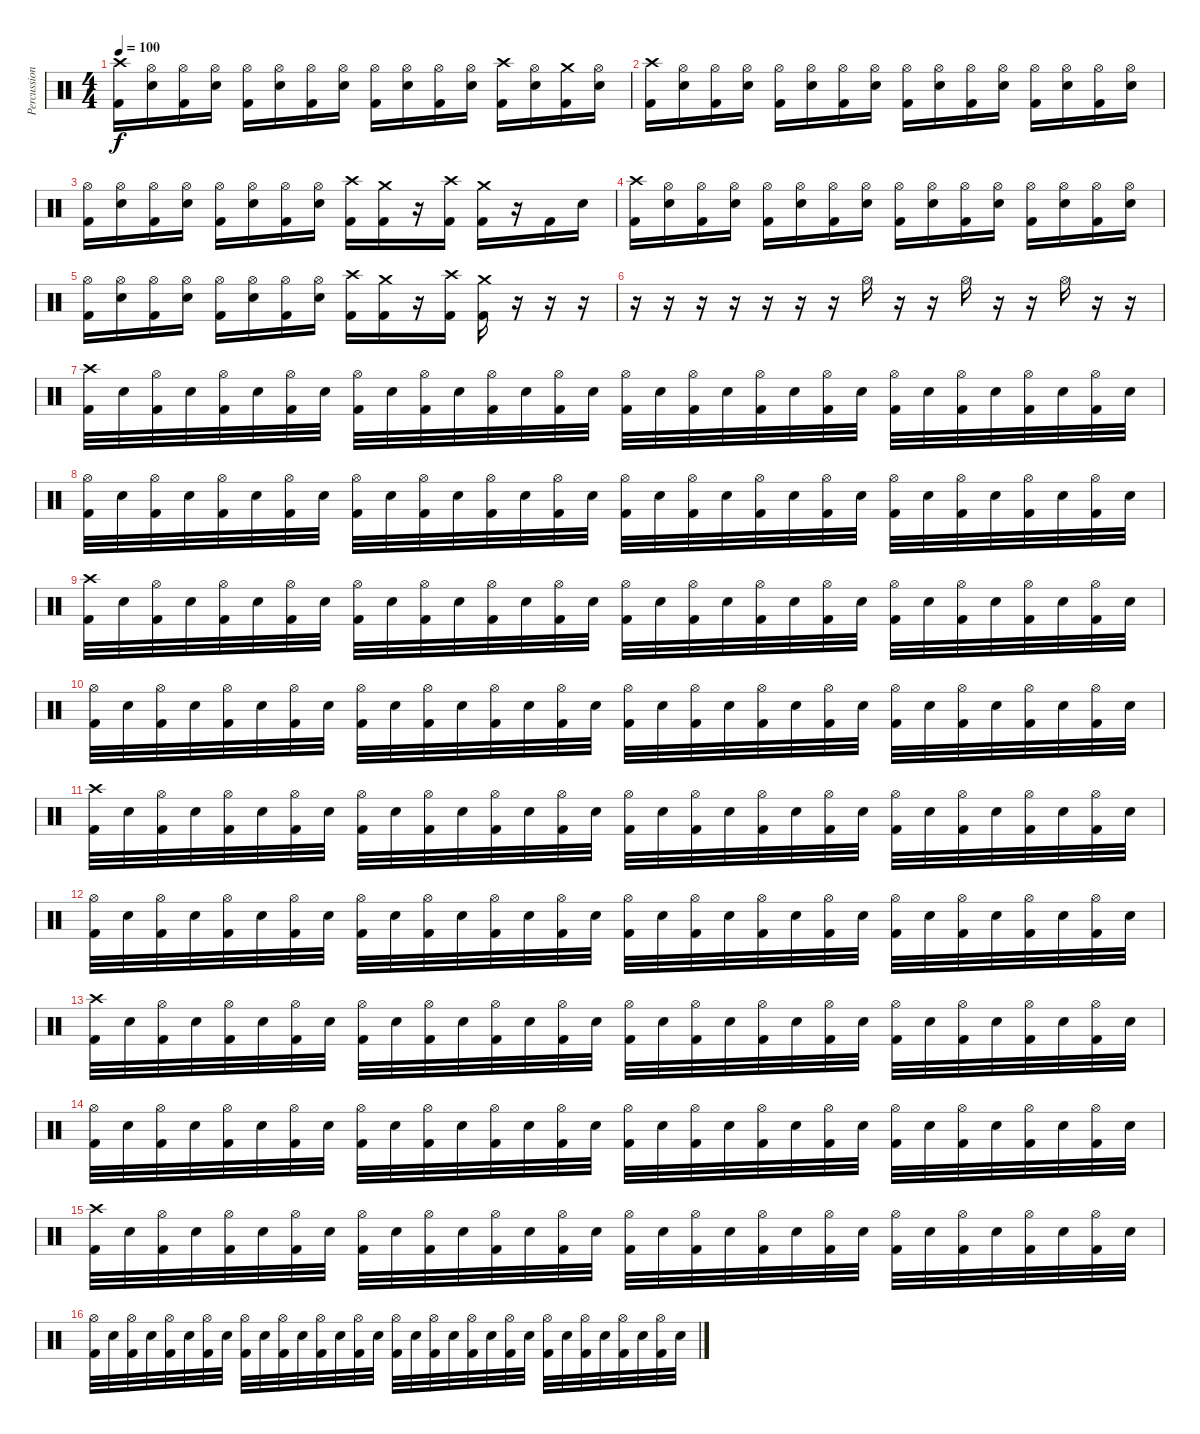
\track ("Percussion" "Percussion") {instrument percussion}
\staff {score}
\articulation defaults
\ts (4 4)
\tempo 100
\clef neutral
\ks c
("Crash high (hit)" "Kick (hit) 2").16{dy f} ("Hi-Hat (open)" "Snare (hit) 2").16 ("Hi-Hat (open)" "Kick (hit) 2").16 ("Hi-Hat (open)" "Snare (hit) 2").16 ("Hi-Hat (open)" "Kick (hit) 2").16 ("Hi-Hat (open)" "Snare (hit) 2").16 ("Hi-Hat (open)" "Kick (hit) 2").16 ("Hi-Hat (open)" "Snare (hit) 2").16 ("Hi-Hat (open)" "Kick (hit) 2").16 ("Hi-Hat (open)" "Snare (hit) 2").16 ("Hi-Hat (open)" "Kick (hit) 2").16 ("Hi-Hat (open)" "Snare (hit) 2").16 ("Crash high (hit)" "Kick (hit) 2").16 ("Hi-Hat (open)" "Snare (hit) 2").16 ("Crash medium (hit)" "Kick (hit) 2").16 ("Hi-Hat (open)" "Snare (hit) 2").16 |
("Crash high (hit)" "Kick (hit) 2").16 ("Hi-Hat (open)" "Snare (hit) 2").16 ("Hi-Hat (open)" "Kick (hit) 2").16 ("Hi-Hat (open)" "Snare (hit) 2").16 ("Hi-Hat (open)" "Kick (hit) 2").16 ("Hi-Hat (open)" "Snare (hit) 2").16 ("Hi-Hat (open)" "Kick (hit) 2").16 ("Hi-Hat (open)" "Snare (hit) 2").16 ("Hi-Hat (open)" "Kick (hit) 2").16 ("Hi-Hat (open)" "Snare (hit) 2").16 ("Hi-Hat (open)" "Kick (hit) 2").16 ("Hi-Hat (open)" "Snare (hit) 2").16 ("Hi-Hat (open)" "Kick (hit) 2").16 ("Hi-Hat (open)" "Snare (hit) 2").16 ("Hi-Hat (open)" "Kick (hit) 2").16 ("Hi-Hat (open)" "Snare (hit) 2").16 |
("Hi-Hat (open)" "Kick (hit) 2").16 ("Hi-Hat (open)" "Snare (hit) 2").16 ("Hi-Hat (open)" "Kick (hit) 2").16 ("Hi-Hat (open)" "Snare (hit) 2").16 ("Hi-Hat (open)" "Kick (hit) 2").16 ("Hi-Hat (open)" "Snare (hit) 2").16 ("Hi-Hat (open)" "Kick (hit) 2").16 ("Hi-Hat (open)" "Snare (hit) 2").16 ("Crash high (hit)" "Kick (hit) 2").16 ("Crash medium (hit)" "Kick (hit) 2").16 r.16 ("Crash high (hit)" "Kick (hit) 2").16 ("Crash medium (hit)" "Kick (hit) 2").16 r.16 "Kick (hit) 2".16 "Snare (hit) 2".16 |
("Crash high (hit)" "Kick (hit) 2").16 ("Hi-Hat (open)" "Snare (hit) 2").16 ("Hi-Hat (open)" "Kick (hit) 2").16 ("Hi-Hat (open)" "Snare (hit) 2").16 ("Hi-Hat (open)" "Kick (hit) 2").16 ("Hi-Hat (open)" "Snare (hit) 2").16 ("Hi-Hat (open)" "Kick (hit) 2").16 ("Hi-Hat (open)" "Snare (hit) 2").16 ("Hi-Hat (open)" "Kick (hit) 2").16 ("Hi-Hat (open)" "Snare (hit) 2").16 ("Hi-Hat (open)" "Kick (hit) 2").16 ("Hi-Hat (open)" "Snare (hit) 2").16 ("Hi-Hat (open)" "Kick (hit) 2").16 ("Hi-Hat (open)" "Snare (hit) 2").16 ("Hi-Hat (open)" "Kick (hit) 2").16 ("Hi-Hat (open)" "Snare (hit) 2").16 |
("Hi-Hat (open)" "Kick (hit) 2").16 ("Hi-Hat (open)" "Snare (hit) 2").16 ("Hi-Hat (open)" "Kick (hit) 2").16 ("Hi-Hat (open)" "Snare (hit) 2").16 ("Hi-Hat (open)" "Kick (hit) 2").16 ("Hi-Hat (open)" "Snare (hit) 2").16 ("Hi-Hat (open)" "Kick (hit) 2").16 ("Hi-Hat (open)" "Snare (hit) 2").16 ("Crash high (hit)" "Kick (hit) 2").16 ("Crash medium (hit)" "Kick (hit) 2").16 r.16 ("Crash high (hit)" "Kick (hit) 2").16 ("Crash medium (hit)" "Kick (hit) 2").16 r.16 r.16 r.16 |
r.16 r.16 r.16 r.16 r.16 r.16 r.16 "Hi-Hat (open)".16 r.16 r.16 "Hi-Hat (open)".16 r.16 r.16 "Hi-Hat (open)".16 r.16 r.16 |
("Crash high (hit)" "Kick (hit) 2").32 "Snare (hit) 2".32 ("Hi-Hat (open)" "Kick (hit) 2").32 "Snare (hit) 2".32 ("Hi-Hat (open)" "Kick (hit) 2").32 "Snare (hit) 2".32 ("Hi-Hat (open)" "Kick (hit) 2").32 "Snare (hit) 2".32 ("Hi-Hat (open)" "Kick (hit) 2").32 "Snare (hit) 2".32 ("Hi-Hat (open)" "Kick (hit) 2").32 "Snare (hit) 2".32 ("Hi-Hat (open)" "Kick (hit) 2").32 "Snare (hit) 2".32 ("Hi-Hat (open)" "Kick (hit) 2").32 "Snare (hit) 2".32 ("Hi-Hat (open)" "Kick (hit) 2").32 "Snare (hit) 2".32 ("Hi-Hat (open)" "Kick (hit) 2").32 "Snare (hit) 2".32 ("Hi-Hat (open)" "Kick (hit) 2").32 "Snare (hit) 2".32 ("Hi-Hat (open)" "Kick (hit) 2").32 "Snare (hit) 2".32 ("Hi-Hat (open)" "Kick (hit) 2").32 "Snare (hit) 2".32 ("Hi-Hat (open)" "Kick (hit) 2").32 "Snare (hit) 2".32 ("Hi-Hat (open)" "Kick (hit) 2").32 "Snare (hit) 2".32 ("Hi-Hat (open)" "Kick (hit) 2").32 "Snare (hit) 2".32 |
("Hi-Hat (open)" "Kick (hit) 2").32 "Snare (hit) 2".32 ("Hi-Hat (open)" "Kick (hit) 2").32 "Snare (hit) 2".32 ("Hi-Hat (open)" "Kick (hit) 2").32 "Snare (hit) 2".32 ("Hi-Hat (open)" "Kick (hit) 2").32 "Snare (hit) 2".32 ("Hi-Hat (open)" "Kick (hit) 2").32 "Snare (hit) 2".32 ("Hi-Hat (open)" "Kick (hit) 2").32 "Snare (hit) 2".32 ("Hi-Hat (open)" "Kick (hit) 2").32 "Snare (hit) 2".32 ("Hi-Hat (open)" "Kick (hit) 2").32 "Snare (hit) 2".32 ("Hi-Hat (open)" "Kick (hit) 2").32 "Snare (hit) 2".32 ("Hi-Hat (open)" "Kick (hit) 2").32 "Snare (hit) 2".32 ("Hi-Hat (open)" "Kick (hit) 2").32 "Snare (hit) 2".32 ("Hi-Hat (open)" "Kick (hit) 2").32 "Snare (hit) 2".32 ("Hi-Hat (open)" "Kick (hit) 2").32 "Snare (hit) 2".32 ("Hi-Hat (open)" "Kick (hit) 2").32 "Snare (hit) 2".32 ("Hi-Hat (open)" "Kick (hit) 2").32 "Snare (hit) 2".32 ("Hi-Hat (open)" "Kick (hit) 2").32 "Snare (hit) 2".32 |
("Crash high (hit)" "Kick (hit) 2").32 "Snare (hit) 2".32 ("Hi-Hat (open)" "Kick (hit) 2").32 "Snare (hit) 2".32 ("Hi-Hat (open)" "Kick (hit) 2").32 "Snare (hit) 2".32 ("Hi-Hat (open)" "Kick (hit) 2").32 "Snare (hit) 2".32 ("Hi-Hat (open)" "Kick (hit) 2").32 "Snare (hit) 2".32 ("Hi-Hat (open)" "Kick (hit) 2").32 "Snare (hit) 2".32 ("Hi-Hat (open)" "Kick (hit) 2").32 "Snare (hit) 2".32 ("Hi-Hat (open)" "Kick (hit) 2").32 "Snare (hit) 2".32 ("Hi-Hat (open)" "Kick (hit) 2").32 "Snare (hit) 2".32 ("Hi-Hat (open)" "Kick (hit) 2").32 "Snare (hit) 2".32 ("Hi-Hat (open)" "Kick (hit) 2").32 "Snare (hit) 2".32 ("Hi-Hat (open)" "Kick (hit) 2").32 "Snare (hit) 2".32 ("Hi-Hat (open)" "Kick (hit) 2").32 "Snare (hit) 2".32 ("Hi-Hat (open)" "Kick (hit) 2").32 "Snare (hit) 2".32 ("Hi-Hat (open)" "Kick (hit) 2").32 "Snare (hit) 2".32 ("Hi-Hat (open)" "Kick (hit) 2").32 "Snare (hit) 2".32 |
("Hi-Hat (open)" "Kick (hit) 2").32 "Snare (hit) 2".32 ("Hi-Hat (open)" "Kick (hit) 2").32 "Snare (hit) 2".32 ("Hi-Hat (open)" "Kick (hit) 2").32 "Snare (hit) 2".32 ("Hi-Hat (open)" "Kick (hit) 2").32 "Snare (hit) 2".32 ("Hi-Hat (open)" "Kick (hit) 2").32 "Snare (hit) 2".32 ("Hi-Hat (open)" "Kick (hit) 2").32 "Snare (hit) 2".32 ("Hi-Hat (open)" "Kick (hit) 2").32 "Snare (hit) 2".32 ("Hi-Hat (open)" "Kick (hit) 2").32 "Snare (hit) 2".32 ("Hi-Hat (open)" "Kick (hit) 2").32 "Snare (hit) 2".32 ("Hi-Hat (open)" "Kick (hit) 2").32 "Snare (hit) 2".32 ("Hi-Hat (open)" "Kick (hit) 2").32 "Snare (hit) 2".32 ("Hi-Hat (open)" "Kick (hit) 2").32 "Snare (hit) 2".32 ("Hi-Hat (open)" "Kick (hit) 2").32 "Snare (hit) 2".32 ("Hi-Hat (open)" "Kick (hit) 2").32 "Snare (hit) 2".32 ("Hi-Hat (open)" "Kick (hit) 2").32 "Snare (hit) 2".32 ("Hi-Hat (open)" "Kick (hit) 2").32 "Snare (hit) 2".32 |
("Crash high (hit)" "Kick (hit) 2").32 "Snare (hit) 2".32 ("Hi-Hat (open)" "Kick (hit) 2").32 "Snare (hit) 2".32 ("Hi-Hat (open)" "Kick (hit) 2").32 "Snare (hit) 2".32 ("Hi-Hat (open)" "Kick (hit) 2").32 "Snare (hit) 2".32 ("Hi-Hat (open)" "Kick (hit) 2").32 "Snare (hit) 2".32 ("Hi-Hat (open)" "Kick (hit) 2").32 "Snare (hit) 2".32 ("Hi-Hat (open)" "Kick (hit) 2").32 "Snare (hit) 2".32 ("Hi-Hat (open)" "Kick (hit) 2").32 "Snare (hit) 2".32 ("Hi-Hat (open)" "Kick (hit) 2").32 "Snare (hit) 2".32 ("Hi-Hat (open)" "Kick (hit) 2").32 "Snare (hit) 2".32 ("Hi-Hat (open)" "Kick (hit) 2").32 "Snare (hit) 2".32 ("Hi-Hat (open)" "Kick (hit) 2").32 "Snare (hit) 2".32 ("Hi-Hat (open)" "Kick (hit) 2").32 "Snare (hit) 2".32 ("Hi-Hat (open)" "Kick (hit) 2").32 "Snare (hit) 2".32 ("Hi-Hat (open)" "Kick (hit) 2").32 "Snare (hit) 2".32 ("Hi-Hat (open)" "Kick (hit) 2").32 "Snare (hit) 2".32 |
("Hi-Hat (open)" "Kick (hit) 2").32 "Snare (hit) 2".32 ("Hi-Hat (open)" "Kick (hit) 2").32 "Snare (hit) 2".32 ("Hi-Hat (open)" "Kick (hit) 2").32 "Snare (hit) 2".32 ("Hi-Hat (open)" "Kick (hit) 2").32 "Snare (hit) 2".32 ("Hi-Hat (open)" "Kick (hit) 2").32 "Snare (hit) 2".32 ("Hi-Hat (open)" "Kick (hit) 2").32 "Snare (hit) 2".32 ("Hi-Hat (open)" "Kick (hit) 2").32 "Snare (hit) 2".32 ("Hi-Hat (open)" "Kick (hit) 2").32 "Snare (hit) 2".32 ("Hi-Hat (open)" "Kick (hit) 2").32 "Snare (hit) 2".32 ("Hi-Hat (open)" "Kick (hit) 2").32 "Snare (hit) 2".32 ("Hi-Hat (open)" "Kick (hit) 2").32 "Snare (hit) 2".32 ("Hi-Hat (open)" "Kick (hit) 2").32 "Snare (hit) 2".32 ("Hi-Hat (open)" "Kick (hit) 2").32 "Snare (hit) 2".32 ("Hi-Hat (open)" "Kick (hit) 2").32 "Snare (hit) 2".32 ("Hi-Hat (open)" "Kick (hit) 2").32 "Snare (hit) 2".32 ("Hi-Hat (open)" "Kick (hit) 2").32 "Snare (hit) 2".32 |
("Crash high (hit)" "Kick (hit) 2").32 "Snare (hit) 2".32 ("Hi-Hat (open)" "Kick (hit) 2").32 "Snare (hit) 2".32 ("Hi-Hat (open)" "Kick (hit) 2").32 "Snare (hit) 2".32 ("Hi-Hat (open)" "Kick (hit) 2").32 "Snare (hit) 2".32 ("Hi-Hat (open)" "Kick (hit) 2").32 "Snare (hit) 2".32 ("Hi-Hat (open)" "Kick (hit) 2").32 "Snare (hit) 2".32 ("Hi-Hat (open)" "Kick (hit) 2").32 "Snare (hit) 2".32 ("Hi-Hat (open)" "Kick (hit) 2").32 "Snare (hit) 2".32 ("Hi-Hat (open)" "Kick (hit) 2").32 "Snare (hit) 2".32 ("Hi-Hat (open)" "Kick (hit) 2").32 "Snare (hit) 2".32 ("Hi-Hat (open)" "Kick (hit) 2").32 "Snare (hit) 2".32 ("Hi-Hat (open)" "Kick (hit) 2").32 "Snare (hit) 2".32 ("Hi-Hat (open)" "Kick (hit) 2").32 "Snare (hit) 2".32 ("Hi-Hat (open)" "Kick (hit) 2").32 "Snare (hit) 2".32 ("Hi-Hat (open)" "Kick (hit) 2").32 "Snare (hit) 2".32 ("Hi-Hat (open)" "Kick (hit) 2").32 "Snare (hit) 2".32 |
("Hi-Hat (open)" "Kick (hit) 2").32 "Snare (hit) 2".32 ("Hi-Hat (open)" "Kick (hit) 2").32 "Snare (hit) 2".32 ("Hi-Hat (open)" "Kick (hit) 2").32 "Snare (hit) 2".32 ("Hi-Hat (open)" "Kick (hit) 2").32 "Snare (hit) 2".32 ("Hi-Hat (open)" "Kick (hit) 2").32 "Snare (hit) 2".32 ("Hi-Hat (open)" "Kick (hit) 2").32 "Snare (hit) 2".32 ("Hi-Hat (open)" "Kick (hit) 2").32 "Snare (hit) 2".32 ("Hi-Hat (open)" "Kick (hit) 2").32 "Snare (hit) 2".32 ("Hi-Hat (open)" "Kick (hit) 2").32 "Snare (hit) 2".32 ("Hi-Hat (open)" "Kick (hit) 2").32 "Snare (hit) 2".32 ("Hi-Hat (open)" "Kick (hit) 2").32 "Snare (hit) 2".32 ("Hi-Hat (open)" "Kick (hit) 2").32 "Snare (hit) 2".32 ("Hi-Hat (open)" "Kick (hit) 2").32 "Snare (hit) 2".32 ("Hi-Hat (open)" "Kick (hit) 2").32 "Snare (hit) 2".32 ("Hi-Hat (open)" "Kick (hit) 2").32 "Snare (hit) 2".32 ("Hi-Hat (open)" "Kick (hit) 2").32 "Snare (hit) 2".32 |
("Crash high (hit)" "Kick (hit) 2").32 "Snare (hit) 2".32 ("Hi-Hat (open)" "Kick (hit) 2").32 "Snare (hit) 2".32 ("Hi-Hat (open)" "Kick (hit) 2").32 "Snare (hit) 2".32 ("Hi-Hat (open)" "Kick (hit) 2").32 "Snare (hit) 2".32 ("Hi-Hat (open)" "Kick (hit) 2").32 "Snare (hit) 2".32 ("Hi-Hat (open)" "Kick (hit) 2").32 "Snare (hit) 2".32 ("Hi-Hat (open)" "Kick (hit) 2").32 "Snare (hit) 2".32 ("Hi-Hat (open)" "Kick (hit) 2").32 "Snare (hit) 2".32 ("Hi-Hat (open)" "Kick (hit) 2").32 "Snare (hit) 2".32 ("Hi-Hat (open)" "Kick (hit) 2").32 "Snare (hit) 2".32 ("Hi-Hat (open)" "Kick (hit) 2").32 "Snare (hit) 2".32 ("Hi-Hat (open)" "Kick (hit) 2").32 "Snare (hit) 2".32 ("Hi-Hat (open)" "Kick (hit) 2").32 "Snare (hit) 2".32 ("Hi-Hat (open)" "Kick (hit) 2").32 "Snare (hit) 2".32 ("Hi-Hat (open)" "Kick (hit) 2").32 "Snare (hit) 2".32 ("Hi-Hat (open)" "Kick (hit) 2").32 "Snare (hit) 2".32 |
("Hi-Hat (open)" "Kick (hit) 2").32 "Snare (hit) 2".32 ("Hi-Hat (open)" "Kick (hit) 2").32 "Snare (hit) 2".32 ("Hi-Hat (open)" "Kick (hit) 2").32 "Snare (hit) 2".32 ("Hi-Hat (open)" "Kick (hit) 2").32 "Snare (hit) 2".32 ("Hi-Hat (open)" "Kick (hit) 2").32 "Snare (hit) 2".32 ("Hi-Hat (open)" "Kick (hit) 2").32 "Snare (hit) 2".32 ("Hi-Hat (open)" "Kick (hit) 2").32 "Snare (hit) 2".32 ("Hi-Hat (open)" "Kick (hit) 2").32 "Snare (hit) 2".32 ("Hi-Hat (open)" "Kick (hit) 2").32 "Snare (hit) 2".32 ("Hi-Hat (open)" "Kick (hit) 2").32 "Snare (hit) 2".32 ("Hi-Hat (open)" "Kick (hit) 2").32 "Snare (hit) 2".32 ("Hi-Hat (open)" "Kick (hit) 2").32 "Snare (hit) 2".32 ("Hi-Hat (open)" "Kick (hit) 2").32 "Snare (hit) 2".32 ("Hi-Hat (open)" "Kick (hit) 2").32 "Snare (hit) 2".32 ("Hi-Hat (open)" "Kick (hit) 2").32 "Snare (hit) 2".32 ("Hi-Hat (open)" "Kick (hit) 2").32 "Snare (hit) 2".32
